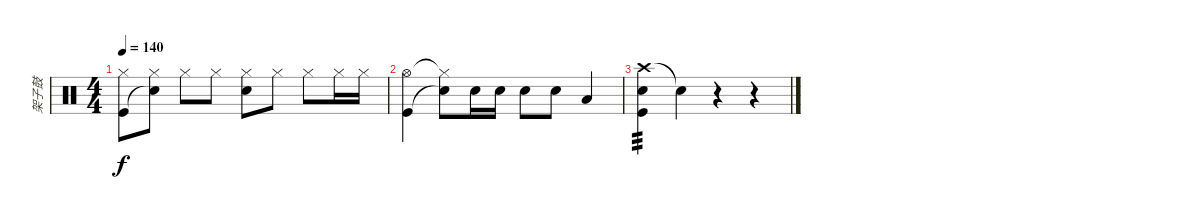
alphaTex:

\track ("架子鼓" "架子鼓") {instrument percussion}
\staff {score}
\articulation defaults
\ts (4 4)
\tempo 140
\clef neutral
\ks c
("Hi-Hat (closed)" "Kick (hit)").8{dy f} ("Hi-Hat (closed)" "Snare (hit)"{t}).8 "Hi-Hat (closed)".8 "Hi-Hat (closed)".8 ("Hi-Hat (closed)" "Snare (hit) 2").8 "Hi-Hat (closed)".8 "Hi-Hat (closed)".8 "Hi-Hat (closed)".16 "Hi-Hat (closed)".16 |
("Hi-Hat (open)" "Kick (hit)").4 ("Hi-Hat (closed)"{t} "Snare (hit)"{t}).8 "Snare (hit) 2".16 "Snare (hit) 2".16 "Snare (hit) 2".8 "Snare (hit) 2".8 "Low Tom (hit)".4 |
("Crash high (hit)" "Snare (hit) 2" "Kick (hit)").4{tp 3} "Snare (hit)"{t}.4 r.4 r.4
